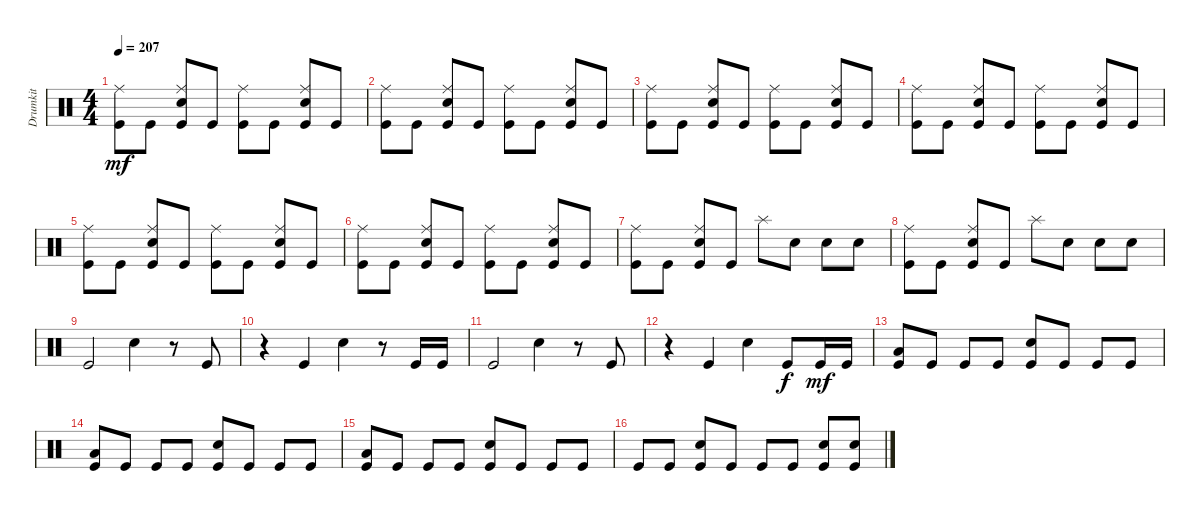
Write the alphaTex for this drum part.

\track ("Drumkit" "Drumkit") {instrument percussion}
\staff {score}
\articulation defaults
\ts (4 4)
\tempo 207
\clef neutral
\ks c
("Kick (hit)" "Ride (middle)").8{dy mf} "Kick (hit)".8 ("Snare (hit) 2" "Ride (middle)" "Kick (hit)").8 "Kick (hit)".8 ("Kick (hit)" "Ride (middle)").8 "Kick (hit)".8 ("Snare (hit) 2" "Ride (middle)" "Kick (hit)").8 "Kick (hit)".8 |
("Kick (hit)" "Ride (middle)").8 "Kick (hit)".8 ("Snare (hit) 2" "Ride (middle)" "Kick (hit)").8 "Kick (hit)".8 ("Kick (hit)" "Ride (middle)").8 "Kick (hit)".8 ("Snare (hit) 2" "Ride (middle)" "Kick (hit)").8 "Kick (hit)".8 |
("Kick (hit)" "Ride (middle)").8 "Kick (hit)".8 ("Snare (hit) 2" "Ride (middle)" "Kick (hit)").8 "Kick (hit)".8 ("Kick (hit)" "Ride (middle)").8 "Kick (hit)".8 ("Snare (hit) 2" "Ride (middle)" "Kick (hit)").8 "Kick (hit)".8 |
("Kick (hit)" "Ride (middle)").8 "Kick (hit)".8 ("Snare (hit) 2" "Ride (middle)" "Kick (hit)").8 "Kick (hit)".8 ("Kick (hit)" "Ride (middle)").8 "Kick (hit)".8 ("Snare (hit) 2" "Ride (middle)" "Kick (hit)").8 "Kick (hit)".8 |
("Kick (hit)" "Ride (middle)").8 "Kick (hit)".8 ("Snare (hit) 2" "Ride (middle)" "Kick (hit)").8 "Kick (hit)".8 ("Kick (hit)" "Ride (middle)").8 "Kick (hit)".8 ("Snare (hit) 2" "Ride (middle)" "Kick (hit)").8 "Kick (hit)".8 |
("Kick (hit)" "Ride (middle)").8 "Kick (hit)".8 ("Snare (hit) 2" "Ride (middle)" "Kick (hit)").8 "Kick (hit)".8 ("Kick (hit)" "Ride (middle)").8 "Kick (hit)".8 ("Snare (hit) 2" "Ride (middle)" "Kick (hit)").8 "Kick (hit)".8 |
("Kick (hit)" "Ride (middle)").8 "Kick (hit)".8 ("Snare (hit) 2" "Ride (middle)" "Kick (hit)").8 "Kick (hit)".8 "Splash (hit)".8 "Snare (hit) 2".8 "Snare (hit) 2".8 "Snare (hit) 2".8 |
("Kick (hit)" "Ride (middle)").8 "Kick (hit)".8 ("Snare (hit) 2" "Ride (middle)" "Kick (hit)").8 "Kick (hit)".8 "Splash (hit)".8 "Snare (hit) 2".8 "Snare (hit) 2".8 "Snare (hit) 2".8 |
"Kick (hit)".2 "Snare (hit) 2".4 r.8 "Kick (hit)".8 |
r.4 "Kick (hit)".4 "Snare (hit) 2".4 r.8 "Kick (hit)".16 "Kick (hit)".16 |
"Kick (hit)".2 "Snare (hit) 2".4 r.8 "Kick (hit)".8 |
r.4 "Kick (hit)".4 "Snare (hit) 2".4 "Kick (hit)".8{dy f} "Kick (hit)".16{dy mf} "Kick (hit)".16 |
("Kick (hit)" "Low Tom (hit)").8 "Kick (hit)".8 "Kick (hit)".8 "Kick (hit)".8 ("Kick (hit)" "Snare (hit) 2").8 "Kick (hit)".8 "Kick (hit)".8 "Kick (hit)".8 |
("Kick (hit)" "Low Tom (hit)").8 "Kick (hit)".8 "Kick (hit)".8 "Kick (hit)".8 ("Kick (hit)" "Snare (hit) 2").8 "Kick (hit)".8 "Kick (hit)".8 "Kick (hit)".8 |
("Kick (hit)" "Low Tom (hit)").8 "Kick (hit)".8 "Kick (hit)".8 "Kick (hit)".8 ("Kick (hit)" "Snare (hit) 2").8 "Kick (hit)".8 "Kick (hit)".8 "Kick (hit)".8 |
"Kick (hit)".8 "Kick (hit)".8 ("Kick (hit)" "Snare (hit) 2").8 "Kick (hit)".8 "Kick (hit)".8 "Kick (hit)".8 ("Kick (hit)" "Snare (hit) 2").8 ("Kick (hit)" "Snare (hit) 2").8
